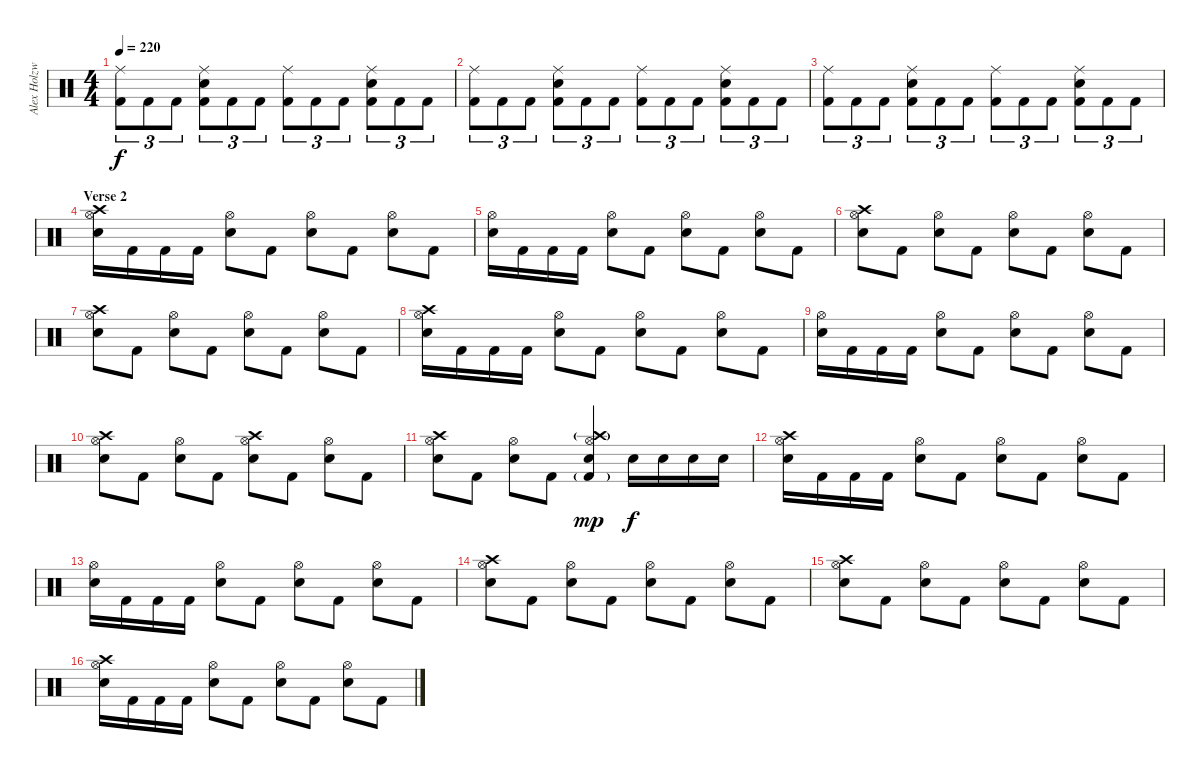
\track ("Alex Holzwarth" "Alex Holzw") {instrument percussion}
\staff {score}
\articulation defaults
\ts (4 4)
\tempo 220
\clef neutral
\ks c
("Ride (middle)" "Kick (hit) 2").8{tu (3 2) dy f} "Kick (hit) 2".8{tu (3 2)} "Kick (hit) 2".8{tu (3 2)} ("Ride (middle)" "Snare (hit) 2" "Kick (hit) 2").8{tu (3 2)} "Kick (hit) 2".8{tu (3 2)} "Kick (hit) 2".8{tu (3 2)} ("Ride (middle)" "Kick (hit) 2").8{tu (3 2)} "Kick (hit) 2".8{tu (3 2)} "Kick (hit) 2".8{tu (3 2)} ("Ride (middle)" "Snare (hit) 2" "Kick (hit) 2").8{tu (3 2)} "Kick (hit) 2".8{tu (3 2)} "Kick (hit) 2".8{tu (3 2)} |
("Ride (middle)" "Kick (hit) 2").8{tu (3 2)} "Kick (hit) 2".8{tu (3 2)} "Kick (hit) 2".8{tu (3 2)} ("Ride (middle)" "Snare (hit) 2" "Kick (hit) 2").8{tu (3 2)} "Kick (hit) 2".8{tu (3 2)} "Kick (hit) 2".8{tu (3 2)} ("Ride (middle)" "Kick (hit) 2").8{tu (3 2)} "Kick (hit) 2".8{tu (3 2)} "Kick (hit) 2".8{tu (3 2)} ("Ride (middle)" "Snare (hit) 2" "Kick (hit) 2").8{tu (3 2)} "Kick (hit) 2".8{tu (3 2)} "Kick (hit) 2".8{tu (3 2)} |
("Ride (middle)" "Kick (hit) 2").8{tu (3 2)} "Kick (hit) 2".8{tu (3 2)} "Kick (hit) 2".8{tu (3 2)} ("Ride (middle)" "Snare (hit) 2" "Kick (hit) 2").8{tu (3 2)} "Kick (hit) 2".8{tu (3 2)} "Kick (hit) 2".8{tu (3 2)} ("Ride (middle)" "Kick (hit) 2").8{tu (3 2)} "Kick (hit) 2".8{tu (3 2)} "Kick (hit) 2".8{tu (3 2)} ("Ride (middle)" "Snare (hit) 2" "Kick (hit) 2").8{tu (3 2)} "Kick (hit) 2".8{tu (3 2)} "Kick (hit) 2".8{tu (3 2)} |
\section ("" "Verse 2")
("Crash high (hit)" "Hi-Hat (open)" "Electric Snare (hit)").16 "Kick (hit) 2".16 "Kick (hit) 2".16 "Kick (hit) 2".16 ("Hi-Hat (open)" "Electric Snare (hit)").8 "Kick (hit) 2".8 ("Hi-Hat (open)" "Electric Snare (hit)").8 "Kick (hit) 2".8 ("Hi-Hat (open)" "Electric Snare (hit)").8 "Kick (hit) 2".8 |
("Hi-Hat (open)" "Electric Snare (hit)").16 "Kick (hit) 2".16 "Kick (hit) 2".16 "Kick (hit) 2".16 ("Hi-Hat (open)" "Electric Snare (hit)").8 "Kick (hit) 2".8 ("Hi-Hat (open)" "Electric Snare (hit)").8 "Kick (hit) 2".8 ("Hi-Hat (open)" "Electric Snare (hit)").8 "Kick (hit) 2".8 |
("Crash high (hit)" "Hi-Hat (open)" "Electric Snare (hit)").8 "Kick (hit) 2".8 ("Hi-Hat (open)" "Electric Snare (hit)").8 "Kick (hit) 2".8 ("Hi-Hat (open)" "Electric Snare (hit)").8 "Kick (hit) 2".8 ("Hi-Hat (open)" "Electric Snare (hit)").8 "Kick (hit) 2".8 |
("Crash high (hit)" "Hi-Hat (open)" "Electric Snare (hit)").8 "Kick (hit) 2".8 ("Hi-Hat (open)" "Electric Snare (hit)").8 "Kick (hit) 2".8 ("Hi-Hat (open)" "Electric Snare (hit)").8 "Kick (hit) 2".8 ("Hi-Hat (open)" "Electric Snare (hit)").8 "Kick (hit) 2".8 |
("Crash high (hit)" "Hi-Hat (open)" "Electric Snare (hit)").16 "Kick (hit) 2".16 "Kick (hit) 2".16 "Kick (hit) 2".16 ("Hi-Hat (open)" "Electric Snare (hit)").8 "Kick (hit) 2".8 ("Hi-Hat (open)" "Electric Snare (hit)").8 "Kick (hit) 2".8 ("Hi-Hat (open)" "Electric Snare (hit)").8 "Kick (hit) 2".8 |
("Hi-Hat (open)" "Electric Snare (hit)").16 "Kick (hit) 2".16 "Kick (hit) 2".16 "Kick (hit) 2".16 ("Hi-Hat (open)" "Electric Snare (hit)").8 "Kick (hit) 2".8 ("Hi-Hat (open)" "Electric Snare (hit)").8 "Kick (hit) 2".8 ("Hi-Hat (open)" "Electric Snare (hit)").8 "Kick (hit) 2".8 |
("Crash high (hit)" "Hi-Hat (open)" "Electric Snare (hit)").8 "Kick (hit) 2".8 ("Hi-Hat (open)" "Electric Snare (hit)").8 "Kick (hit) 2".8 ("Crash high (hit)" "Hi-Hat (open)" "Electric Snare (hit)").8 "Kick (hit) 2".8 ("Hi-Hat (open)" "Electric Snare (hit)").8 "Kick (hit) 2".8 |
("Crash high (hit)" "Hi-Hat (open)" "Electric Snare (hit)").8 "Kick (hit) 2".8 ("Hi-Hat (open)" "Electric Snare (hit)").8 "Kick (hit) 2".8 ("Crash high (hit)"{g} "Hi-Hat (open)" "Electric Snare (hit)" "Kick (hit) 2"{g}).4{dy mp} "Snare (hit) 2".16{dy f} "Snare (hit) 2".16 "Snare (hit) 2".16 "Snare (hit) 2".16 |
("Crash high (hit)" "Hi-Hat (open)" "Electric Snare (hit)").16 "Kick (hit) 2".16 "Kick (hit) 2".16 "Kick (hit) 2".16 ("Hi-Hat (open)" "Electric Snare (hit)").8 "Kick (hit) 2".8 ("Hi-Hat (open)" "Electric Snare (hit)").8 "Kick (hit) 2".8 ("Hi-Hat (open)" "Electric Snare (hit)").8 "Kick (hit) 2".8 |
("Hi-Hat (open)" "Electric Snare (hit)").16 "Kick (hit) 2".16 "Kick (hit) 2".16 "Kick (hit) 2".16 ("Hi-Hat (open)" "Electric Snare (hit)").8 "Kick (hit) 2".8 ("Hi-Hat (open)" "Electric Snare (hit)").8 "Kick (hit) 2".8 ("Hi-Hat (open)" "Electric Snare (hit)").8 "Kick (hit) 2".8 |
("Crash high (hit)" "Hi-Hat (open)" "Electric Snare (hit)").8 "Kick (hit) 2".8 ("Hi-Hat (open)" "Electric Snare (hit)").8 "Kick (hit) 2".8 ("Hi-Hat (open)" "Electric Snare (hit)").8 "Kick (hit) 2".8 ("Hi-Hat (open)" "Electric Snare (hit)").8 "Kick (hit) 2".8 |
("Crash high (hit)" "Hi-Hat (open)" "Electric Snare (hit)").8 "Kick (hit) 2".8 ("Hi-Hat (open)" "Electric Snare (hit)").8 "Kick (hit) 2".8 ("Hi-Hat (open)" "Electric Snare (hit)").8 "Kick (hit) 2".8 ("Hi-Hat (open)" "Electric Snare (hit)").8 "Kick (hit) 2".8 |
("Crash high (hit)" "Hi-Hat (open)" "Electric Snare (hit)").16 "Kick (hit) 2".16 "Kick (hit) 2".16 "Kick (hit) 2".16 ("Hi-Hat (open)" "Electric Snare (hit)").8 "Kick (hit) 2".8 ("Hi-Hat (open)" "Electric Snare (hit)").8 "Kick (hit) 2".8 ("Hi-Hat (open)" "Electric Snare (hit)").8 "Kick (hit) 2".8
